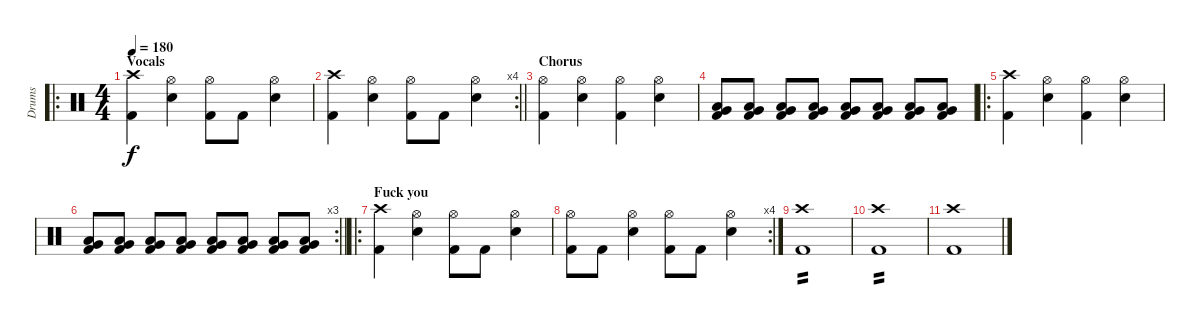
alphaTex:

\track ("Drums" "Drums") {instrument percussion}
\staff {score}
\articulation defaults
\ro
\ts (4 4)
\section ("" "Vocals")
\tempo 180
\clef neutral
\ks c
("Crash high (hit)" "Kick (hit) 2").4{dy f} ("Hi-Hat (open)" "Snare (hit) 2").4 ("Hi-Hat (open)" "Kick (hit) 2").8 "Kick (hit) 2".8 ("Hi-Hat (open)" "Snare (hit) 2").4 |
\rc 4
\barLineRight lightlight
("Crash high (hit)" "Kick (hit) 2").4 ("Hi-Hat (open)" "Snare (hit) 2").4 ("Hi-Hat (open)" "Kick (hit) 2").8 "Kick (hit) 2".8 ("Hi-Hat (open)" "Snare (hit) 2").4 |
\section ("" "Chorus")
("Hi-Hat (open)" "Kick (hit) 2").4 ("Hi-Hat (open)" "Snare (hit) 2").4 ("Hi-Hat (open)" "Kick (hit) 2").4 ("Hi-Hat (open)" "Snare (hit) 2").4 |
("Very Low Tom (hit)" "Low Floor Tom (hit)" "Kick (hit) 2").8 ("Very Low Tom (hit)" "Low Floor Tom (hit)" "Kick (hit) 2").8 ("Very Low Tom (hit)" "Low Floor Tom (hit)" "Kick (hit) 2").8 ("Very Low Tom (hit)" "Low Floor Tom (hit)" "Kick (hit) 2").8 ("Very Low Tom (hit)" "Low Floor Tom (hit)" "Kick (hit) 2").8 ("Very Low Tom (hit)" "Low Floor Tom (hit)" "Kick (hit) 2").8 ("Very Low Tom (hit)" "Low Floor Tom (hit)" "Kick (hit) 2").8 ("Very Low Tom (hit)" "Low Floor Tom (hit)" "Kick (hit) 2").8 |
\ro
("Crash high (hit)" "Kick (hit) 2").4 ("Hi-Hat (open)" "Snare (hit) 2").4 ("Hi-Hat (open)" "Kick (hit) 2").4 ("Hi-Hat (open)" "Snare (hit) 2").4 |
\rc 3
\barLineRight lightlight
("Very Low Tom (hit)" "Low Floor Tom (hit)" "Kick (hit) 2").8 ("Very Low Tom (hit)" "Low Floor Tom (hit)" "Kick (hit) 2").8 ("Very Low Tom (hit)" "Low Floor Tom (hit)" "Kick (hit) 2").8 ("Very Low Tom (hit)" "Low Floor Tom (hit)" "Kick (hit) 2").8 ("Very Low Tom (hit)" "Low Floor Tom (hit)" "Kick (hit) 2").8 ("Very Low Tom (hit)" "Low Floor Tom (hit)" "Kick (hit) 2").8 ("Very Low Tom (hit)" "Low Floor Tom (hit)" "Kick (hit) 2").8 ("Very Low Tom (hit)" "Low Floor Tom (hit)" "Kick (hit) 2").8 |
\ro
\section ("" "Fuck you")
("Crash high (hit)" "Kick (hit) 2").4 ("Hi-Hat (open)" "Snare (hit) 2").4 ("Hi-Hat (open)" "Kick (hit) 2").8 "Kick (hit) 2".8 ("Hi-Hat (open)" "Snare (hit) 2").4 |
\rc 4
("Hi-Hat (open)" "Kick (hit) 2").8 "Kick (hit) 2".8 ("Hi-Hat (open)" "Snare (hit) 2").4 ("Hi-Hat (open)" "Kick (hit) 2").8 "Kick (hit) 2".8 ("Hi-Hat (open)" "Snare (hit) 2").4 |
("Crash high (hit)" "Kick (hit) 2").1{tp 2} |
("Crash high (hit)" "Kick (hit) 2").1{tp 2} |
("Crash high (hit)" "Kick (hit) 2").1
